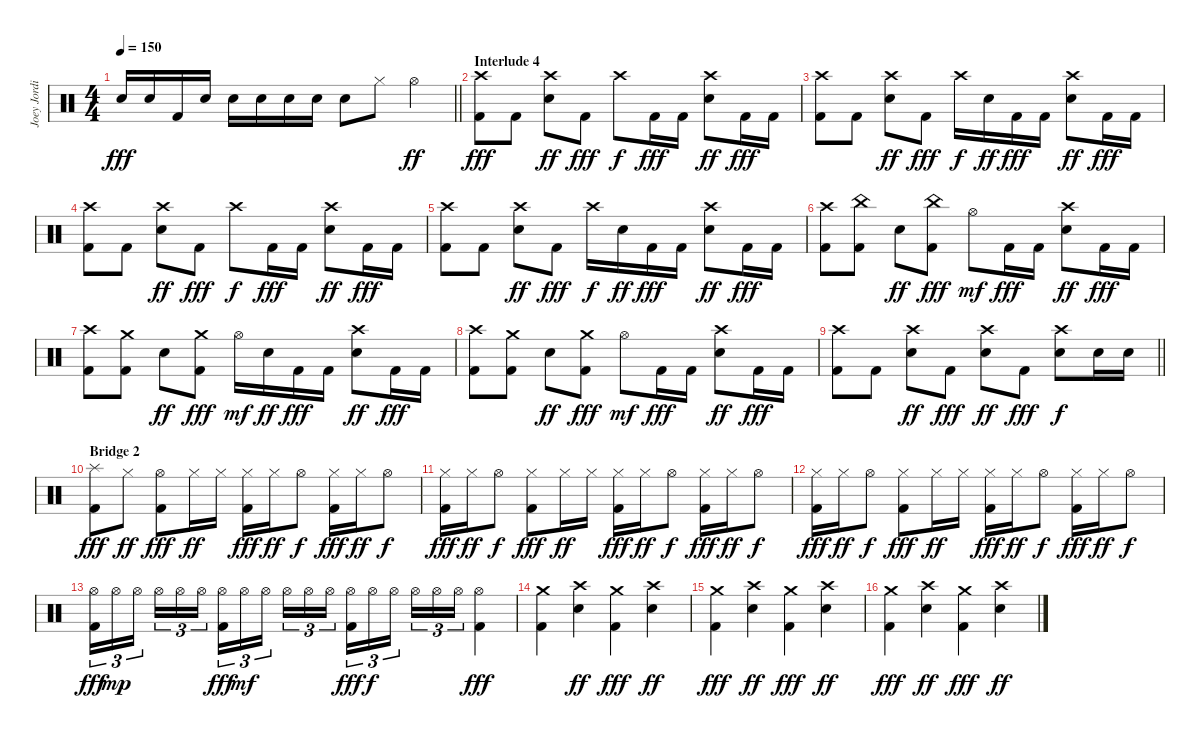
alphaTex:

\track ("Joey Jordison" "Joey Jordi") {instrument percussion}
\staff {score}
\articulation defaults
\ts (4 4)
\tempo 150
\clef neutral
\barLineRight lightlight
\ks c "Electric Snare (hit)".16{dy fff} "Electric Snare (hit)".16 "Kick (hit) 2".16 "Electric Snare (hit)".16 "Electric Snare (hit)".16 "Electric Snare (hit)".16 "Electric Snare (hit)".16 "Electric Snare (hit)".16 "Electric Snare (hit)".8 "Hi-Hat (closed)".8 "Hi-Hat (open)".4{dy ff}
|
\section ("" "Interlude 4")
("Crash high (hit)" "Kick (hit) 2").8{dy fff} "Kick (hit) 2".8 ("Crash high (hit)" "Electric Snare (hit)").8{dy ff} "Kick (hit) 2".8{dy fff} "Crash high (hit)".8{dy f} "Kick (hit) 2".16{dy fff} "Kick (hit) 2".16 ("Crash high (hit)" "Electric Snare (hit)").8{dy ff} "Kick (hit) 2".16{dy fff} "Kick (hit) 2".16 |
("Crash high (hit)" "Kick (hit) 2").8 "Kick (hit) 2".8 ("Crash high (hit)" "Electric Snare (hit)").8{dy ff} "Kick (hit) 2".8{dy fff} "Crash high (hit)".16{dy f} "Electric Snare (hit)".16{dy ff} "Kick (hit) 2".16{dy fff} "Kick (hit) 2".16 ("Crash high (hit)" "Electric Snare (hit)").8{dy ff} "Kick (hit) 2".16{dy fff} "Kick (hit) 2".16 |
("Crash high (hit)" "Kick (hit) 2").8 "Kick (hit) 2".8 ("Crash high (hit)" "Electric Snare (hit)").8{dy ff} "Kick (hit) 2".8{dy fff} "Crash high (hit)".8{dy f} "Kick (hit) 2".16{dy fff} "Kick (hit) 2".16 ("Crash high (hit)" "Electric Snare (hit)").8{dy ff} "Kick (hit) 2".16{dy fff} "Kick (hit) 2".16 |
("Crash high (hit)" "Kick (hit) 2").8 "Kick (hit) 2".8 ("Crash high (hit)" "Electric Snare (hit)").8{dy ff} "Kick (hit) 2".8{dy fff} "Crash high (hit)".16{dy f} "Electric Snare (hit)".16{dy ff} "Kick (hit) 2".16{dy fff} "Kick (hit) 2".16 ("Crash high (hit)" "Electric Snare (hit)").8{dy ff} "Kick (hit) 2".16{dy fff} "Kick (hit) 2".16 |
("Crash high (hit)" "Kick (hit) 2").8 ("China (hit)" "Kick (hit) 2").8 "Electric Snare (hit)".8{dy ff} ("China (hit)" "Kick (hit) 2").8{dy fff} "Hi-Hat (open)".8{dy mf} "Kick (hit) 2".16{dy fff} "Kick (hit) 2".16 ("Crash high (hit)" "Electric Snare (hit)").8{dy ff} "Kick (hit) 2".16{dy fff} "Kick (hit) 2".16 |
("Crash high (hit)" "Kick (hit) 2").8 ("Crash medium (hit)" "Kick (hit) 2").8 "Electric Snare (hit)".8{dy ff} ("Crash medium (hit)" "Kick (hit) 2").8{dy fff} "Hi-Hat (open)".16{dy mf} "Electric Snare (hit)".16{dy ff} "Kick (hit) 2".16{dy fff} "Kick (hit) 2".16 ("Crash high (hit)" "Electric Snare (hit)").8{dy ff} "Kick (hit) 2".16{dy fff} "Kick (hit) 2".16 |
("Crash high (hit)" "Kick (hit) 2").8 ("Crash medium (hit)" "Kick (hit) 2").8 "Electric Snare (hit)".8{dy ff} ("Crash medium (hit)" "Kick (hit) 2").8{dy fff} "Hi-Hat (open)".8{dy mf} "Kick (hit) 2".16{dy fff} "Kick (hit) 2".16 ("Crash high (hit)" "Electric Snare (hit)").8{dy ff} "Kick (hit) 2".16{dy fff} "Kick (hit) 2".16 |
\barLineRight lightlight
("Crash high (hit)" "Kick (hit) 2").8 "Kick (hit) 2".8 ("Crash high (hit)" "Electric Snare (hit)").8{dy ff} "Kick (hit) 2".8{dy fff} ("Crash high (hit)" "Electric Snare (hit)").8{dy ff} "Kick (hit) 2".8{dy fff} ("Crash high (hit)" "Electric Snare (hit)").8{dy f} "Electric Snare (hit)".16 "Electric Snare (hit)".16 |
\section ("" "Bridge 2")
("Splash (hit)" "Kick (hit) 2").8{dy fff} "Hi-Hat (closed)".8{dy ff} ("Hi-Hat (open)" "Kick (hit) 2").8{dy fff} "Hi-Hat (closed)".16{dy ff} "Hi-Hat (closed)".16 ("Hi-Hat (closed)" "Kick (hit) 2").16{dy fff} "Hi-Hat (closed)".16{dy ff} "Hi-Hat (open)".8{dy f} ("Hi-Hat (closed)" "Kick (hit) 2").16{dy fff} "Hi-Hat (closed)".16{dy ff} "Hi-Hat (open)".8{dy f} |
("Hi-Hat (closed)" "Kick (hit) 2").16{dy fff} "Hi-Hat (closed)".16{dy ff} "Hi-Hat (open)".8{dy f} ("Hi-Hat (closed)" "Kick (hit) 2").8{dy fff} "Hi-Hat (closed)".16{dy ff} "Hi-Hat (closed)".16 ("Hi-Hat (closed)" "Kick (hit) 2").16{dy fff} "Hi-Hat (closed)".16{dy ff} "Hi-Hat (open)".8{dy f} ("Hi-Hat (closed)" "Kick (hit) 2").16{dy fff} "Hi-Hat (closed)".16{dy ff} "Hi-Hat (open)".8{dy f} |
("Hi-Hat (closed)" "Kick (hit) 2").16{dy fff} "Hi-Hat (closed)".16{dy ff} "Hi-Hat (open)".8{dy f} ("Hi-Hat (closed)" "Kick (hit) 2").8{dy fff} "Hi-Hat (closed)".16{dy ff} "Hi-Hat (closed)".16 ("Hi-Hat (closed)" "Kick (hit) 2").16{dy fff} "Hi-Hat (closed)".16{dy ff} "Hi-Hat (open)".8{dy f} ("Hi-Hat (closed)" "Kick (hit) 2").16{dy fff} "Hi-Hat (closed)".16{dy ff} "Hi-Hat (open)".8{dy f} |
("Hi-Hat (open)" "Kick (hit) 2").16{tu (3 2) dy fff} "Hi-Hat (open)".16{tu (3 2) dy mp} "Hi-Hat (open)".16{tu (3 2) beam splitsecondary} "Hi-Hat (open)".16{tu (3 2)} "Hi-Hat (open)".16{tu (3 2)} "Hi-Hat (open)".16{tu (3 2)} ("Hi-Hat (open)" "Kick (hit) 2").16{tu (3 2) dy fff} "Hi-Hat (open)".16{tu (3 2) dy mf} "Hi-Hat (open)".16{tu (3 2) beam splitsecondary} "Hi-Hat (open)".16{tu (3 2)} "Hi-Hat (open)".16{tu (3 2)} "Hi-Hat (open)".16{tu (3 2)} ("Hi-Hat (open)" "Kick (hit) 2").16{tu (3 2) dy fff} "Hi-Hat (open)".16{tu (3 2) dy f} "Hi-Hat (open)".16{tu (3 2) beam splitsecondary} "Hi-Hat (open)".16{tu (3 2)} "Hi-Hat (open)".16{tu (3 2)} "Hi-Hat (open)".16{tu (3 2)} ("Hi-Hat (open)" "Kick (hit) 2").4{dy fff} |
("Crash medium (hit)" "Kick (hit) 2").4 ("Crash high (hit)" "Electric Snare (hit)").4{dy ff} ("Crash medium (hit)" "Kick (hit) 2").4{dy fff} ("Crash high (hit)" "Electric Snare (hit)").4{dy ff} |
("Crash medium (hit)" "Kick (hit) 2").4{dy fff} ("Crash high (hit)" "Electric Snare (hit)").4{dy ff} ("Crash medium (hit)" "Kick (hit) 2").4{dy fff} ("Crash high (hit)" "Electric Snare (hit)").4{dy ff} |
("Crash medium (hit)" "Kick (hit) 2").4{dy fff} ("Crash high (hit)" "Electric Snare (hit)").4{dy ff} ("Crash medium (hit)" "Kick (hit) 2").4{dy fff} ("Crash high (hit)" "Electric Snare (hit)").4{dy ff}
